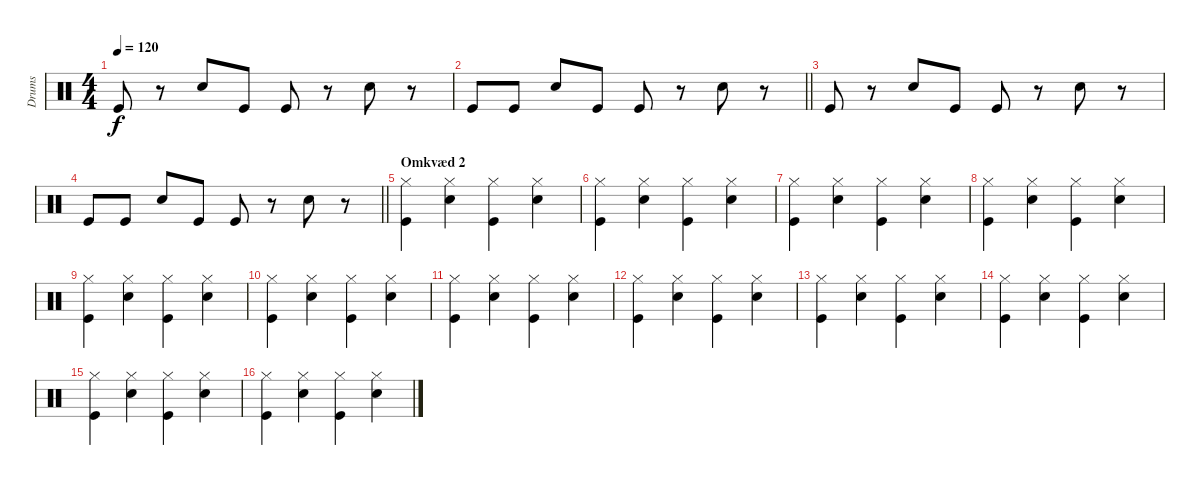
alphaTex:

\track ("Drums" "Drums") {instrument percussion}
\staff {score}
\articulation defaults
\ts (4 4)
\tempo 120
\clef neutral
\ks c "Kick (hit)".8{dy f}
r.8 "Snare (hit) 2".8 "Kick (hit)".8 "Kick (hit)".8 r.8 "Snare (hit) 2".8 r.8 |
\barLineRight lightlight "Kick (hit)".8 "Kick (hit)".8 "Snare (hit) 2".8 "Kick (hit)".8 "Kick (hit)".8
r.8 "Snare (hit) 2".8 r.8 |
"Kick (hit)".8 r.8 "Snare (hit) 2".8 "Kick (hit)".8 "Kick (hit)".8 r.8 "Snare (hit) 2".8 r.8 |
\barLineRight lightlight "Kick (hit)".8 "Kick (hit)".8 "Snare (hit) 2".8 "Kick (hit)".8 "Kick (hit)".8
r.8 "Snare (hit) 2".8 r.8 |
\section ("" "Omkvæd 2")
("Hi-Hat (closed)" "Kick (hit)").4 ("Hi-Hat (closed)" "Snare (hit) 2").4 ("Hi-Hat (closed)" "Kick (hit)").4 ("Hi-Hat (closed)" "Snare (hit) 2").4 |
("Hi-Hat (closed)" "Kick (hit)").4 ("Hi-Hat (closed)" "Snare (hit) 2").4 ("Hi-Hat (closed)" "Kick (hit)").4 ("Hi-Hat (closed)" "Snare (hit) 2").4 |
("Hi-Hat (closed)" "Kick (hit)").4 ("Hi-Hat (closed)" "Snare (hit) 2").4 ("Hi-Hat (closed)" "Kick (hit)").4 ("Hi-Hat (closed)" "Snare (hit) 2").4 |
("Hi-Hat (closed)" "Kick (hit)").4 ("Hi-Hat (closed)" "Snare (hit) 2").4 ("Hi-Hat (closed)" "Kick (hit)").4 ("Hi-Hat (closed)" "Snare (hit) 2").4 |
("Hi-Hat (closed)" "Kick (hit)").4 ("Hi-Hat (closed)" "Snare (hit) 2").4 ("Hi-Hat (closed)" "Kick (hit)").4 ("Hi-Hat (closed)" "Snare (hit) 2").4 |
("Hi-Hat (closed)" "Kick (hit)").4 ("Hi-Hat (closed)" "Snare (hit) 2").4 ("Hi-Hat (closed)" "Kick (hit)").4 ("Hi-Hat (closed)" "Snare (hit) 2").4 |
("Hi-Hat (closed)" "Kick (hit)").4 ("Hi-Hat (closed)" "Snare (hit) 2").4 ("Hi-Hat (closed)" "Kick (hit)").4 ("Hi-Hat (closed)" "Snare (hit) 2").4 |
("Hi-Hat (closed)" "Kick (hit)").4 ("Hi-Hat (closed)" "Snare (hit) 2").4 ("Hi-Hat (closed)" "Kick (hit)").4 ("Hi-Hat (closed)" "Snare (hit) 2").4 |
("Hi-Hat (closed)" "Kick (hit)").4 ("Hi-Hat (closed)" "Snare (hit) 2").4 ("Hi-Hat (closed)" "Kick (hit)").4 ("Hi-Hat (closed)" "Snare (hit) 2").4 |
("Hi-Hat (closed)" "Kick (hit)").4 ("Hi-Hat (closed)" "Snare (hit) 2").4 ("Hi-Hat (closed)" "Kick (hit)").4 ("Hi-Hat (closed)" "Snare (hit) 2").4 |
("Hi-Hat (closed)" "Kick (hit)").4 ("Hi-Hat (closed)" "Snare (hit) 2").4 ("Hi-Hat (closed)" "Kick (hit)").4 ("Hi-Hat (closed)" "Snare (hit) 2").4 |
("Hi-Hat (closed)" "Kick (hit)").4 ("Hi-Hat (closed)" "Snare (hit) 2").4 ("Hi-Hat (closed)" "Kick (hit)").4 ("Hi-Hat (closed)" "Snare (hit) 2").4
